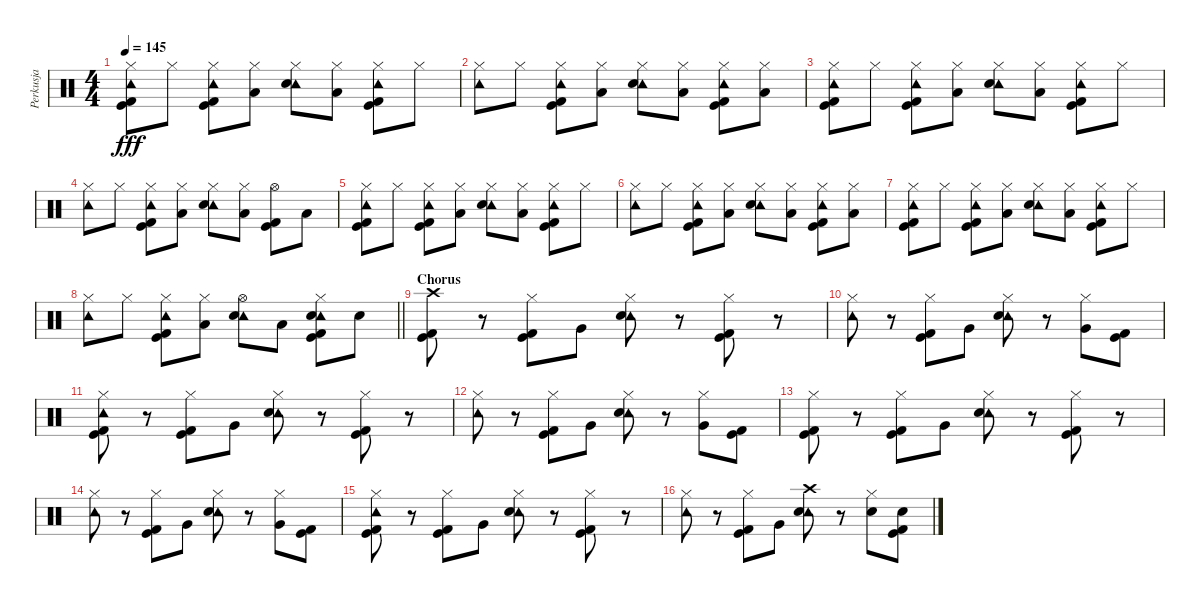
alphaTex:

\track ("Perkusja" "Perkusja") {instrument percussion}
\staff {score}
\articulation defaults
\ts (4 4)
\tempo 145
\clef neutral
\ks c
("Hi-Hat (closed)" "Tambourine (hit)" "Kick (hit)" "Kick (hit) 2").8{dy fff} "Hi-Hat (closed)".8 ("Hi-Hat (closed)" "Tambourine (hit)" "Kick (hit)" "Kick (hit) 2").8 ("Hi-Hat (closed)" "Low Floor Tom (hit)").8 ("Hi-Hat (closed)" "Tambourine (hit)" "Electric Snare (hit)").8 ("Hi-Hat (closed)" "Low Floor Tom (hit)").8 ("Hi-Hat (closed)" "Tambourine (hit)" "Kick (hit)" "Kick (hit) 2").8 "Hi-Hat (closed)".8 |
("Hi-Hat (closed)" "Tambourine (hit)").8 "Hi-Hat (closed)".8 ("Hi-Hat (closed)" "Tambourine (hit)" "Kick (hit)" "Kick (hit) 2").8 ("Hi-Hat (closed)" "Low Floor Tom (hit)").8 ("Hi-Hat (closed)" "Tambourine (hit)" "Electric Snare (hit)").8 ("Hi-Hat (closed)" "Low Floor Tom (hit)").8 ("Hi-Hat (closed)" "Tambourine (hit)" "Kick (hit)" "Kick (hit) 2").8 ("Hi-Hat (closed)" "Low Floor Tom (hit)").8 |
("Hi-Hat (closed)" "Tambourine (hit)" "Kick (hit)" "Kick (hit) 2").8 "Hi-Hat (closed)".8 ("Hi-Hat (closed)" "Tambourine (hit)" "Kick (hit)" "Kick (hit) 2").8 ("Hi-Hat (closed)" "Low Floor Tom (hit)").8 ("Hi-Hat (closed)" "Tambourine (hit)" "Electric Snare (hit)").8 ("Hi-Hat (closed)" "Low Floor Tom (hit)").8 ("Hi-Hat (closed)" "Tambourine (hit)" "Kick (hit)" "Kick (hit) 2").8 "Hi-Hat (closed)".8 |
("Hi-Hat (closed)" "Tambourine (hit)").8 "Hi-Hat (closed)".8 ("Hi-Hat (closed)" "Tambourine (hit)" "Kick (hit)" "Kick (hit) 2").8 ("Hi-Hat (closed)" "Low Floor Tom (hit)").8 ("Hi-Hat (closed)" "Tambourine (hit)" "Electric Snare (hit)").8 ("Hi-Hat (closed)" "Low Floor Tom (hit)").8 ("Hi-Hat (open)" "Kick (hit)" "Kick (hit) 2").8 "Low Floor Tom (hit)".8 |
("Hi-Hat (closed)" "Tambourine (hit)" "Kick (hit)" "Kick (hit) 2").8 "Hi-Hat (closed)".8 ("Hi-Hat (closed)" "Tambourine (hit)" "Kick (hit)" "Kick (hit) 2").8 ("Hi-Hat (closed)" "Low Floor Tom (hit)").8 ("Hi-Hat (closed)" "Tambourine (hit)" "Electric Snare (hit)").8 ("Hi-Hat (closed)" "Low Floor Tom (hit)").8 ("Hi-Hat (closed)" "Tambourine (hit)" "Kick (hit)" "Kick (hit) 2").8 "Hi-Hat (closed)".8 |
("Hi-Hat (closed)" "Tambourine (hit)").8 "Hi-Hat (closed)".8 ("Hi-Hat (closed)" "Tambourine (hit)" "Kick (hit)" "Kick (hit) 2").8 ("Hi-Hat (closed)" "Low Floor Tom (hit)").8 ("Hi-Hat (closed)" "Tambourine (hit)" "Electric Snare (hit)").8 ("Hi-Hat (closed)" "Low Floor Tom (hit)").8 ("Hi-Hat (closed)" "Tambourine (hit)" "Kick (hit)" "Kick (hit) 2").8 ("Hi-Hat (closed)" "Low Floor Tom (hit)").8 |
("Hi-Hat (closed)" "Tambourine (hit)" "Kick (hit)" "Kick (hit) 2").8 "Hi-Hat (closed)".8 ("Hi-Hat (closed)" "Tambourine (hit)" "Kick (hit)" "Kick (hit) 2").8 ("Hi-Hat (closed)" "Low Floor Tom (hit)").8 ("Hi-Hat (closed)" "Tambourine (hit)" "Electric Snare (hit)").8 ("Hi-Hat (closed)" "Low Floor Tom (hit)").8 ("Hi-Hat (closed)" "Tambourine (hit)" "Kick (hit)" "Kick (hit) 2").8 "Hi-Hat (closed)".8 |
\barLineRight lightlight
("Hi-Hat (closed)" "Tambourine (hit)").8 "Hi-Hat (closed)".8 ("Hi-Hat (closed)" "Tambourine (hit)" "Kick (hit)" "Kick (hit) 2").8 ("Hi-Hat (closed)" "Low Floor Tom (hit)").8 ("Hi-Hat (open)" "Tambourine (hit)" "Electric Snare (hit)").8 "Low Floor Tom (hit)".8 ("Hi-Hat (closed)" "Tambourine (hit)" "Electric Snare (hit)" "Kick (hit)" "Kick (hit) 2").8 "Electric Snare (hit)".8 |
\section ("" "Chorus")
("Crash high (hit)" "Kick (hit)" "Kick (hit) 2").8 r.8 ("Hi-Hat (closed)" "Kick (hit)" "Kick (hit) 2").8 "Very Low Tom (hit)".8 ("Hi-Hat (closed)" "Tambourine (hit)" "Electric Snare (hit)").8 r.8 ("Hi-Hat (closed)" "Kick (hit)" "Kick (hit) 2").8 r.8 |
("Hi-Hat (closed)" "Tambourine (hit)").8 r.8 ("Hi-Hat (closed)" "Kick (hit)" "Kick (hit) 2").8 "Very Low Tom (hit)".8 ("Hi-Hat (closed)" "Tambourine (hit)" "Electric Snare (hit)").8 r.8 ("Hi-Hat (closed)" "Very Low Tom (hit)").8 ("Kick (hit)" "Kick (hit) 2").8 |
("Hi-Hat (closed)" "Tambourine (hit)" "Kick (hit)" "Kick (hit) 2").8 r.8 ("Hi-Hat (closed)" "Kick (hit)" "Kick (hit) 2").8 "Very Low Tom (hit)".8 ("Hi-Hat (closed)" "Tambourine (hit)" "Electric Snare (hit)").8 r.8 ("Hi-Hat (closed)" "Kick (hit)" "Kick (hit) 2").8 r.8 |
("Hi-Hat (closed)" "Tambourine (hit)").8 r.8 ("Hi-Hat (closed)" "Kick (hit)" "Kick (hit) 2").8 "Very Low Tom (hit)".8 ("Hi-Hat (closed)" "Tambourine (hit)" "Electric Snare (hit)").8 r.8 ("Hi-Hat (closed)" "Very Low Tom (hit)").8 ("Kick (hit)" "Kick (hit) 2").8 |
("Hi-Hat (closed)" "Kick (hit)" "Kick (hit) 2").8 r.8 ("Hi-Hat (closed)" "Kick (hit)" "Kick (hit) 2").8 "Very Low Tom (hit)".8 ("Hi-Hat (closed)" "Tambourine (hit)" "Electric Snare (hit)").8 r.8 ("Hi-Hat (closed)" "Kick (hit)" "Kick (hit) 2").8 r.8 |
("Hi-Hat (closed)" "Tambourine (hit)").8 r.8 ("Hi-Hat (closed)" "Kick (hit)" "Kick (hit) 2").8 "Very Low Tom (hit)".8 ("Hi-Hat (closed)" "Tambourine (hit)" "Electric Snare (hit)").8 r.8 ("Hi-Hat (closed)" "Very Low Tom (hit)").8 ("Kick (hit)" "Kick (hit) 2").8 |
("Hi-Hat (closed)" "Tambourine (hit)" "Kick (hit)" "Kick (hit) 2").8 r.8 ("Hi-Hat (closed)" "Kick (hit)" "Kick (hit) 2").8 "Very Low Tom (hit)".8 ("Hi-Hat (closed)" "Tambourine (hit)" "Electric Snare (hit)").8 r.8 ("Hi-Hat (closed)" "Kick (hit)" "Kick (hit) 2").8 r.8 |
("Hi-Hat (closed)" "Tambourine (hit)").8 r.8 ("Hi-Hat (closed)" "Kick (hit)" "Kick (hit) 2").8 "Very Low Tom (hit)".8 ("Crash high (hit)" "Tambourine (hit)" "Electric Snare (hit)").8 r.8 ("Hi-Hat (closed)" "Electric Snare (hit)").8 ("Electric Snare (hit)" "Kick (hit)" "Kick (hit) 2").8
